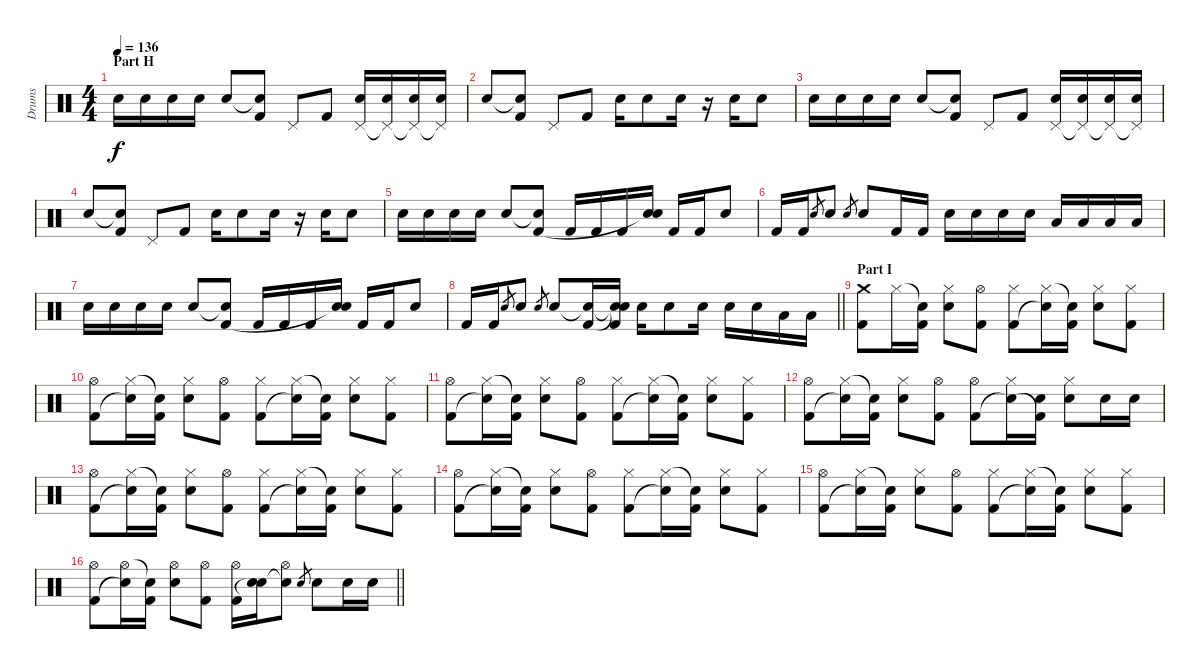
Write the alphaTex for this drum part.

\track ("Drums" "Drums") {instrument percussion}
\staff {score}
\articulation defaults
\ts (4 4)
\section ("" "Part H")
\tempo 136
\clef neutral
\ks c "Electric Snare (hit)".16{dy f} "Electric Snare (hit)".16 "Electric Snare (hit)".16 "Electric Snare (hit)".16 "Electric Snare (hit)".8
("Snare (hit)"{t} "Kick (hit) 2").8 "Pedal Hi-Hat (hit)".8 "Kick (hit) 2".8 ("Pedal Hi-Hat (hit)" "Electric Snare (hit)").16 ("Pedal Hi-Hat (hit)"{t} "Electric Snare (hit)").16 ("Pedal Hi-Hat (hit)"{t} "Electric Snare (hit)").16 ("Pedal Hi-Hat (hit)"{t} "Electric Snare (hit)").16 |
"Electric Snare (hit)".8 ("Snare (hit)"{t} "Kick (hit) 2").8 "Pedal Hi-Hat (hit)".8 "Kick (hit) 2".8 "Electric Snare (hit)".16 "Electric Snare (hit)".8 "Electric Snare (hit)".16 r.16 "Electric Snare (hit)".16 "Electric Snare (hit)".8 |
"Electric Snare (hit)".16 "Electric Snare (hit)".16 "Electric Snare (hit)".16 "Electric Snare (hit)".16 "Electric Snare (hit)".8 ("Snare (hit)"{t} "Kick (hit) 2").8 "Pedal Hi-Hat (hit)".8 "Kick (hit) 2".8 ("Pedal Hi-Hat (hit)" "Electric Snare (hit)").16 ("Pedal Hi-Hat (hit)"{t} "Electric Snare (hit)").16 ("Pedal Hi-Hat (hit)"{t} "Electric Snare (hit)").16 ("Pedal Hi-Hat (hit)"{t} "Electric Snare (hit)").16 |
"Electric Snare (hit)".8 ("Snare (hit)"{t} "Kick (hit) 2").8 "Pedal Hi-Hat (hit)".8 "Kick (hit) 2".8 "Electric Snare (hit)".16 "Electric Snare (hit)".8 "Electric Snare (hit)".16 r.16 "Electric Snare (hit)".16 "Electric Snare (hit)".8 |
"Electric Snare (hit)".16 "Electric Snare (hit)".16 "Electric Snare (hit)".16 "Electric Snare (hit)".16 "Electric Snare (hit)".8 ("Snare (hit)"{t} "Kick (hit) 2").8 "Kick (hit) 2".16 "Kick (hit) 2".16 "Kick (hit) 2".16 ("Electric Snare (hit)" "Snare (hit)"{t}).16 "Kick (hit) 2".16 "Kick (hit) 2".16 "Electric Snare (hit)".8 |
"Kick (hit) 2".16 "Kick (hit) 2".16 "Electric Snare (hit)".8{gr} "Electric Snare (hit)".8 "Electric Snare (hit)".8{gr} "Electric Snare (hit)".8 "Kick (hit) 2".16 "Kick (hit) 2".16 "Electric Snare (hit)".16 "Electric Snare (hit)".16 "Electric Snare (hit)".16 "Electric Snare (hit)".16 "Low Tom (hit)".16 "Low Tom (hit)".16 "Low Tom (hit)".16 "Low Tom (hit)".16 |
"Electric Snare (hit)".16 "Electric Snare (hit)".16 "Electric Snare (hit)".16 "Electric Snare (hit)".16 "Electric Snare (hit)".8 ("Snare (hit)"{t} "Kick (hit) 2").8 "Kick (hit) 2".16 "Kick (hit) 2".16 "Kick (hit) 2".16 ("Electric Snare (hit)" "Snare (hit)"{t}).16 "Kick (hit) 2".16 "Kick (hit) 2".16 "Electric Snare (hit)".8 |
\barLineRight lightlight "Kick (hit) 2".16 "Kick (hit) 2".16 "Electric Snare (hit)".8{gr} "Electric Snare (hit)".8 "Electric Snare (hit)".8{gr} "Electric Snare (hit)".8
("Snare (hit)"{t} "Kick (hit) 2").16 ("Snare (hit)"{t} "Snare (hit)"{t} "Kick (hit) 2").16 "Electric Snare (hit)".16 "Electric Snare (hit)".8 "Electric Snare (hit)".16 "Electric Snare (hit)".16 "Electric Snare (hit)".16 "Low Tom (hit)".16 "Low Tom (hit)".16 |
\section ("" "Part I")
("Crash medium (hit)" "Kick (hit) 2").8 "Hi-Hat (closed)".16 ("Snare (hit)"{t} "Kick (hit) 2").16 ("Hi-Hat (closed)" "Electric Snare (hit)").8 ("Hi-Hat (open)" "Kick (hit) 2").8 ("Hi-Hat (closed)" "Kick (hit) 2").8 ("Hi-Hat (closed)" "Snare (hit)"{t}).16 ("Snare (hit)"{t} "Kick (hit) 2").16 ("Hi-Hat (closed)" "Electric Snare (hit)").8 ("Hi-Hat (closed)" "Kick (hit) 2").8 |
("Hi-Hat (open)" "Kick (hit) 2").8 ("Hi-Hat (closed)" "Snare (hit)"{t}).16 ("Snare (hit)"{t} "Kick (hit) 2").16 ("Hi-Hat (closed)" "Electric Snare (hit)").8 ("Hi-Hat (open)" "Kick (hit) 2").8 ("Hi-Hat (closed)" "Kick (hit) 2").8 ("Hi-Hat (closed)" "Snare (hit)"{t}).16 ("Snare (hit)"{t} "Kick (hit) 2").16 ("Hi-Hat (closed)" "Electric Snare (hit)").8 ("Hi-Hat (closed)" "Kick (hit) 2").8 |
("Hi-Hat (open)" "Kick (hit) 2").8 ("Hi-Hat (closed)" "Snare (hit)"{t}).16 ("Snare (hit)"{t} "Kick (hit) 2").16 ("Hi-Hat (closed)" "Electric Snare (hit)").8 ("Hi-Hat (open)" "Kick (hit) 2").8 ("Hi-Hat (closed)" "Kick (hit) 2").8 ("Hi-Hat (closed)" "Snare (hit)"{t}).16 ("Snare (hit)"{t} "Kick (hit) 2").16 ("Hi-Hat (closed)" "Electric Snare (hit)").8 ("Hi-Hat (closed)" "Kick (hit) 2").8 |
("Hi-Hat (open)" "Kick (hit) 2").8 ("Hi-Hat (closed)" "Snare (hit)"{t}).16 ("Snare (hit)"{t} "Kick (hit) 2").16 ("Hi-Hat (closed)" "Electric Snare (hit)").8 ("Hi-Hat (open)" "Kick (hit) 2").8 ("Hi-Hat (open)" "Kick (hit) 2").8 ("Hi-Hat (closed)" "Snare (hit)"{t}).16 ("Electric Snare (hit)" "Kick (hit) 2"{t}).16 ("Hi-Hat (closed)" "Electric Snare (hit)").8 "Electric Snare (hit)".16 "Electric Snare (hit)".16 |
("Hi-Hat (open)" "Kick (hit) 2").8 ("Hi-Hat (closed)" "Snare (hit)"{t}).16 ("Snare (hit)"{t} "Kick (hit) 2").16 ("Hi-Hat (closed)" "Electric Snare (hit)").8 ("Hi-Hat (open)" "Kick (hit) 2").8 ("Hi-Hat (closed)" "Kick (hit) 2").8 ("Hi-Hat (closed)" "Snare (hit)"{t}).16 ("Snare (hit)"{t} "Kick (hit) 2").16 ("Hi-Hat (closed)" "Electric Snare (hit)").8 ("Hi-Hat (closed)" "Kick (hit) 2").8 |
("Hi-Hat (open)" "Kick (hit) 2").8 ("Hi-Hat (closed)" "Snare (hit)"{t}).16 ("Snare (hit)"{t} "Kick (hit) 2").16 ("Hi-Hat (closed)" "Electric Snare (hit)").8 ("Hi-Hat (open)" "Kick (hit) 2").8 ("Hi-Hat (closed)" "Kick (hit) 2").8 ("Hi-Hat (closed)" "Snare (hit)"{t}).16 ("Snare (hit)"{t} "Kick (hit) 2").16 ("Hi-Hat (closed)" "Electric Snare (hit)").8 ("Hi-Hat (closed)" "Kick (hit) 2").8 |
("Hi-Hat (open)" "Kick (hit) 2").8 ("Hi-Hat (closed)" "Snare (hit)"{t}).16 ("Snare (hit)"{t} "Kick (hit) 2").16 ("Hi-Hat (closed)" "Electric Snare (hit)").8 ("Hi-Hat (open)" "Kick (hit) 2").8 ("Hi-Hat (closed)" "Kick (hit) 2").8 ("Hi-Hat (closed)" "Snare (hit)"{t}).16 ("Snare (hit)"{t} "Kick (hit) 2").16 ("Hi-Hat (closed)" "Electric Snare (hit)").8 ("Hi-Hat (closed)" "Kick (hit) 2").8 |
\barLineRight lightlight
("Hi-Hat (open)" "Kick (hit) 2").8 ("Hi-Hat (open)" "Snare (hit)"{t}).16 ("Snare (hit)"{t} "Kick (hit) 2").16 ("Hi-Hat (open)" "Electric Snare (hit)").8 ("Hi-Hat (open)" "Kick (hit) 2").8 ("Hi-Hat (open)" "Kick (hit) 2").16 ("Electric Snare (hit)" "Snare (hit)"{t}).16 ("Hi-Hat (open)" "Snare (hit)"{t}).8 "Electric Snare (hit)".8{gr} "Electric Snare (hit)".8 "Electric Snare (hit)".16 "Electric Snare (hit)".16
